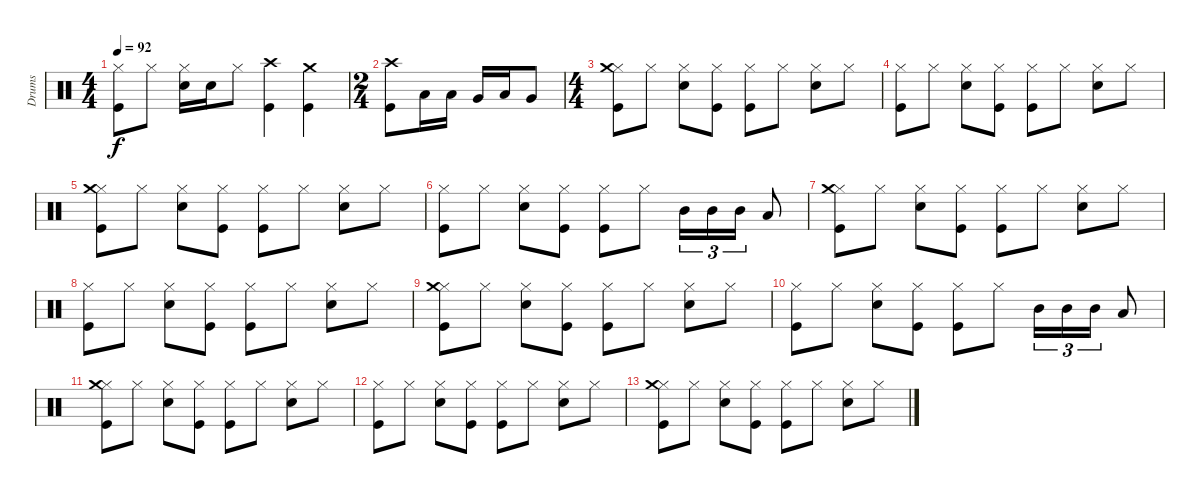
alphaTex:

\track ("Drums" "Drums") {instrument percussion}
\staff {score}
\articulation defaults
\ts (4 4)
\tempo 92
\clef neutral
\ks c
("Kick (hit)" "Hi-Hat (closed)").8{dy f} "Hi-Hat (closed)".8 ("Electric Snare (hit)" "Hi-Hat (closed)").16 "Electric Snare (hit)".16 "Hi-Hat (closed)".8 ("Kick (hit)" "Crash high (hit)").4 ("Kick (hit)" "Crash medium (hit)").4 |
\ts (2 4)
("Kick (hit)" "Crash high (hit)").8 "Low Tom (hit)".16 "Low Tom (hit)".16 "Very Low Tom (hit)".16 "Low Tom (hit)".16 "Very Low Tom (hit)".8 |
\ts (4 4)
("Kick (hit)" "Hi-Hat (closed)" "Crash medium (hit)").8 "Hi-Hat (closed)".8 ("Electric Snare (hit)" "Hi-Hat (closed)").8 ("Kick (hit)" "Hi-Hat (closed)").8 ("Kick (hit)" "Hi-Hat (closed)").8 "Hi-Hat (closed)".8 ("Electric Snare (hit)" "Hi-Hat (closed)").8 "Hi-Hat (closed)".8 |
("Kick (hit)" "Hi-Hat (closed)").8 "Hi-Hat (closed)".8 ("Electric Snare (hit)" "Hi-Hat (closed)").8 ("Kick (hit)" "Hi-Hat (closed)").8 ("Kick (hit)" "Hi-Hat (closed)").8 "Hi-Hat (closed)".8 ("Electric Snare (hit)" "Hi-Hat (closed)").8 "Hi-Hat (closed)".8 |
("Kick (hit)" "Hi-Hat (closed)" "Crash medium (hit)").8 "Hi-Hat (closed)".8 ("Electric Snare (hit)" "Hi-Hat (closed)").8 ("Kick (hit)" "Hi-Hat (closed)").8 ("Kick (hit)" "Hi-Hat (closed)").8 "Hi-Hat (closed)".8 ("Electric Snare (hit)" "Hi-Hat (closed)").8 "Hi-Hat (closed)".8 |
("Kick (hit)" "Hi-Hat (closed)").8 "Hi-Hat (closed)".8 ("Electric Snare (hit)" "Hi-Hat (closed)").8 ("Kick (hit)" "Hi-Hat (closed)").8 ("Kick (hit)" "Hi-Hat (closed)").8 "Hi-Hat (closed)".8 "Mid Tom (hit)".16{tu (3 2)} "Mid Tom (hit)".16{tu (3 2)} "Mid Tom (hit)".16{tu (3 2)} "Low Tom (hit)".8 |
("Kick (hit)" "Hi-Hat (closed)" "Crash medium (hit)").8 "Hi-Hat (closed)".8 ("Electric Snare (hit)" "Hi-Hat (closed)").8 ("Kick (hit)" "Hi-Hat (closed)").8 ("Kick (hit)" "Hi-Hat (closed)").8 "Hi-Hat (closed)".8 ("Electric Snare (hit)" "Hi-Hat (closed)").8 "Hi-Hat (closed)".8 |
("Kick (hit)" "Hi-Hat (closed)").8 "Hi-Hat (closed)".8 ("Electric Snare (hit)" "Hi-Hat (closed)").8 ("Kick (hit)" "Hi-Hat (closed)").8 ("Kick (hit)" "Hi-Hat (closed)").8 "Hi-Hat (closed)".8 ("Electric Snare (hit)" "Hi-Hat (closed)").8 "Hi-Hat (closed)".8 |
("Kick (hit)" "Hi-Hat (closed)" "Crash medium (hit)").8 "Hi-Hat (closed)".8 ("Electric Snare (hit)" "Hi-Hat (closed)").8 ("Kick (hit)" "Hi-Hat (closed)").8 ("Kick (hit)" "Hi-Hat (closed)").8 "Hi-Hat (closed)".8 ("Electric Snare (hit)" "Hi-Hat (closed)").8 "Hi-Hat (closed)".8 |
("Kick (hit)" "Hi-Hat (closed)").8 "Hi-Hat (closed)".8 ("Electric Snare (hit)" "Hi-Hat (closed)").8 ("Kick (hit)" "Hi-Hat (closed)").8 ("Kick (hit)" "Hi-Hat (closed)").8 "Hi-Hat (closed)".8 "Mid Tom (hit)".16{tu (3 2)} "Mid Tom (hit)".16{tu (3 2)} "Mid Tom (hit)".16{tu (3 2)} "Low Tom (hit)".8 |
("Kick (hit)" "Hi-Hat (closed)" "Crash medium (hit)").8 "Hi-Hat (closed)".8 ("Electric Snare (hit)" "Hi-Hat (closed)").8 ("Kick (hit)" "Hi-Hat (closed)").8 ("Kick (hit)" "Hi-Hat (closed)").8 "Hi-Hat (closed)".8 ("Electric Snare (hit)" "Hi-Hat (closed)").8 "Hi-Hat (closed)".8 |
("Kick (hit)" "Hi-Hat (closed)").8 "Hi-Hat (closed)".8 ("Electric Snare (hit)" "Hi-Hat (closed)").8 ("Kick (hit)" "Hi-Hat (closed)").8 ("Kick (hit)" "Hi-Hat (closed)").8 "Hi-Hat (closed)".8 ("Electric Snare (hit)" "Hi-Hat (closed)").8 "Hi-Hat (closed)".8 |
("Kick (hit)" "Hi-Hat (closed)" "Crash medium (hit)").8 "Hi-Hat (closed)".8 ("Electric Snare (hit)" "Hi-Hat (closed)").8 ("Kick (hit)" "Hi-Hat (closed)").8 ("Kick (hit)" "Hi-Hat (closed)").8 "Hi-Hat (closed)".8 ("Electric Snare (hit)" "Hi-Hat (closed)").8 "Hi-Hat (closed)".8
